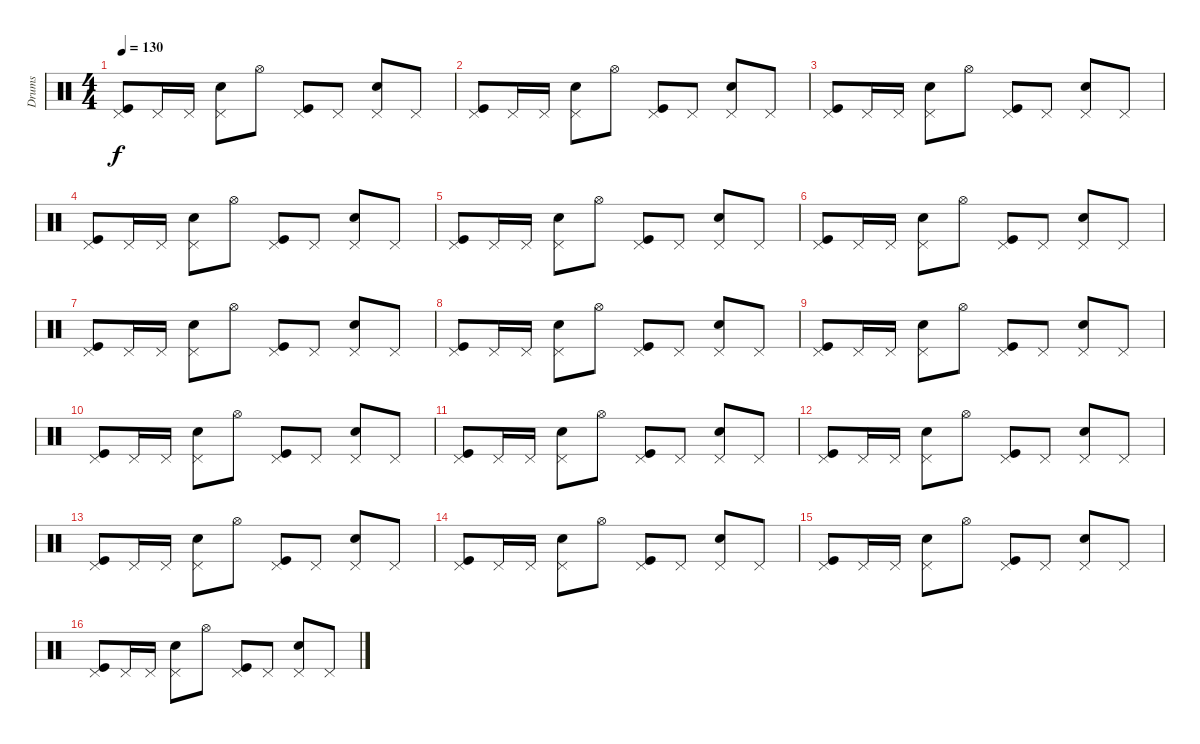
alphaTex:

\track ("Drums" "Drums") {instrument percussion}
\staff {score}
\articulation defaults
\ts (4 4)
\tempo 130
\clef neutral
\ks c
("Pedal Hi-Hat (hit)" "Kick (hit)").8{dy f} "Pedal Hi-Hat (hit)".16 "Pedal Hi-Hat (hit)".16 ("Pedal Hi-Hat (hit)" "Snare (hit) 2").8 "Hi-Hat (open)".8 ("Pedal Hi-Hat (hit)" "Kick (hit)").8 "Pedal Hi-Hat (hit)".8 ("Pedal Hi-Hat (hit)" "Snare (hit) 2").8 "Pedal Hi-Hat (hit)".8 |
("Pedal Hi-Hat (hit)" "Kick (hit)").8 "Pedal Hi-Hat (hit)".16 "Pedal Hi-Hat (hit)".16 ("Pedal Hi-Hat (hit)" "Snare (hit) 2").8 "Hi-Hat (open)".8 ("Pedal Hi-Hat (hit)" "Kick (hit)").8 "Pedal Hi-Hat (hit)".8 ("Pedal Hi-Hat (hit)" "Snare (hit) 2").8 "Pedal Hi-Hat (hit)".8 |
("Pedal Hi-Hat (hit)" "Kick (hit)").8 "Pedal Hi-Hat (hit)".16 "Pedal Hi-Hat (hit)".16 ("Pedal Hi-Hat (hit)" "Snare (hit) 2").8 "Hi-Hat (open)".8 ("Pedal Hi-Hat (hit)" "Kick (hit)").8 "Pedal Hi-Hat (hit)".8 ("Pedal Hi-Hat (hit)" "Snare (hit) 2").8 "Pedal Hi-Hat (hit)".8 |
("Pedal Hi-Hat (hit)" "Kick (hit)").8 "Pedal Hi-Hat (hit)".16 "Pedal Hi-Hat (hit)".16 ("Pedal Hi-Hat (hit)" "Snare (hit) 2").8 "Hi-Hat (open)".8 ("Pedal Hi-Hat (hit)" "Kick (hit)").8 "Pedal Hi-Hat (hit)".8 ("Pedal Hi-Hat (hit)" "Snare (hit) 2").8 "Pedal Hi-Hat (hit)".8 |
("Pedal Hi-Hat (hit)" "Kick (hit)").8 "Pedal Hi-Hat (hit)".16 "Pedal Hi-Hat (hit)".16 ("Pedal Hi-Hat (hit)" "Snare (hit) 2").8 "Hi-Hat (open)".8 ("Pedal Hi-Hat (hit)" "Kick (hit)").8 "Pedal Hi-Hat (hit)".8 ("Pedal Hi-Hat (hit)" "Snare (hit) 2").8 "Pedal Hi-Hat (hit)".8 |
("Pedal Hi-Hat (hit)" "Kick (hit)").8 "Pedal Hi-Hat (hit)".16 "Pedal Hi-Hat (hit)".16 ("Pedal Hi-Hat (hit)" "Snare (hit) 2").8 "Hi-Hat (open)".8 ("Pedal Hi-Hat (hit)" "Kick (hit)").8 "Pedal Hi-Hat (hit)".8 ("Pedal Hi-Hat (hit)" "Snare (hit) 2").8 "Pedal Hi-Hat (hit)".8 |
("Pedal Hi-Hat (hit)" "Kick (hit)").8 "Pedal Hi-Hat (hit)".16 "Pedal Hi-Hat (hit)".16 ("Pedal Hi-Hat (hit)" "Snare (hit) 2").8 "Hi-Hat (open)".8 ("Pedal Hi-Hat (hit)" "Kick (hit)").8 "Pedal Hi-Hat (hit)".8 ("Pedal Hi-Hat (hit)" "Snare (hit) 2").8 "Pedal Hi-Hat (hit)".8 |
("Pedal Hi-Hat (hit)" "Kick (hit)").8 "Pedal Hi-Hat (hit)".16 "Pedal Hi-Hat (hit)".16 ("Pedal Hi-Hat (hit)" "Snare (hit) 2").8 "Hi-Hat (open)".8 ("Pedal Hi-Hat (hit)" "Kick (hit)").8 "Pedal Hi-Hat (hit)".8 ("Pedal Hi-Hat (hit)" "Snare (hit) 2").8 "Pedal Hi-Hat (hit)".8 |
("Pedal Hi-Hat (hit)" "Kick (hit)").8 "Pedal Hi-Hat (hit)".16 "Pedal Hi-Hat (hit)".16 ("Pedal Hi-Hat (hit)" "Snare (hit) 2").8 "Hi-Hat (open)".8 ("Pedal Hi-Hat (hit)" "Kick (hit)").8 "Pedal Hi-Hat (hit)".8 ("Pedal Hi-Hat (hit)" "Snare (hit) 2").8 "Pedal Hi-Hat (hit)".8 |
("Pedal Hi-Hat (hit)" "Kick (hit)").8 "Pedal Hi-Hat (hit)".16 "Pedal Hi-Hat (hit)".16 ("Pedal Hi-Hat (hit)" "Snare (hit) 2").8 "Hi-Hat (open)".8 ("Pedal Hi-Hat (hit)" "Kick (hit)").8 "Pedal Hi-Hat (hit)".8 ("Pedal Hi-Hat (hit)" "Snare (hit) 2").8 "Pedal Hi-Hat (hit)".8 |
("Pedal Hi-Hat (hit)" "Kick (hit)").8 "Pedal Hi-Hat (hit)".16 "Pedal Hi-Hat (hit)".16 ("Pedal Hi-Hat (hit)" "Snare (hit) 2").8 "Hi-Hat (open)".8 ("Pedal Hi-Hat (hit)" "Kick (hit)").8 "Pedal Hi-Hat (hit)".8 ("Pedal Hi-Hat (hit)" "Snare (hit) 2").8 "Pedal Hi-Hat (hit)".8 |
("Pedal Hi-Hat (hit)" "Kick (hit)").8 "Pedal Hi-Hat (hit)".16 "Pedal Hi-Hat (hit)".16 ("Pedal Hi-Hat (hit)" "Snare (hit) 2").8 "Hi-Hat (open)".8 ("Pedal Hi-Hat (hit)" "Kick (hit)").8 "Pedal Hi-Hat (hit)".8 ("Pedal Hi-Hat (hit)" "Snare (hit) 2").8 "Pedal Hi-Hat (hit)".8 |
("Pedal Hi-Hat (hit)" "Kick (hit)").8 "Pedal Hi-Hat (hit)".16 "Pedal Hi-Hat (hit)".16 ("Pedal Hi-Hat (hit)" "Snare (hit) 2").8 "Hi-Hat (open)".8 ("Pedal Hi-Hat (hit)" "Kick (hit)").8 "Pedal Hi-Hat (hit)".8 ("Pedal Hi-Hat (hit)" "Snare (hit) 2").8 "Pedal Hi-Hat (hit)".8 |
("Pedal Hi-Hat (hit)" "Kick (hit)").8 "Pedal Hi-Hat (hit)".16 "Pedal Hi-Hat (hit)".16 ("Pedal Hi-Hat (hit)" "Snare (hit) 2").8 "Hi-Hat (open)".8 ("Pedal Hi-Hat (hit)" "Kick (hit)").8 "Pedal Hi-Hat (hit)".8 ("Pedal Hi-Hat (hit)" "Snare (hit) 2").8 "Pedal Hi-Hat (hit)".8 |
("Pedal Hi-Hat (hit)" "Kick (hit)").8 "Pedal Hi-Hat (hit)".16 "Pedal Hi-Hat (hit)".16 ("Pedal Hi-Hat (hit)" "Snare (hit) 2").8 "Hi-Hat (open)".8 ("Pedal Hi-Hat (hit)" "Kick (hit)").8 "Pedal Hi-Hat (hit)".8 ("Pedal Hi-Hat (hit)" "Snare (hit) 2").8 "Pedal Hi-Hat (hit)".8 |
("Pedal Hi-Hat (hit)" "Kick (hit)").8 "Pedal Hi-Hat (hit)".16 "Pedal Hi-Hat (hit)".16 ("Pedal Hi-Hat (hit)" "Snare (hit) 2").8 "Hi-Hat (open)".8 ("Pedal Hi-Hat (hit)" "Kick (hit)").8 "Pedal Hi-Hat (hit)".8 ("Pedal Hi-Hat (hit)" "Snare (hit) 2").8 "Pedal Hi-Hat (hit)".8
